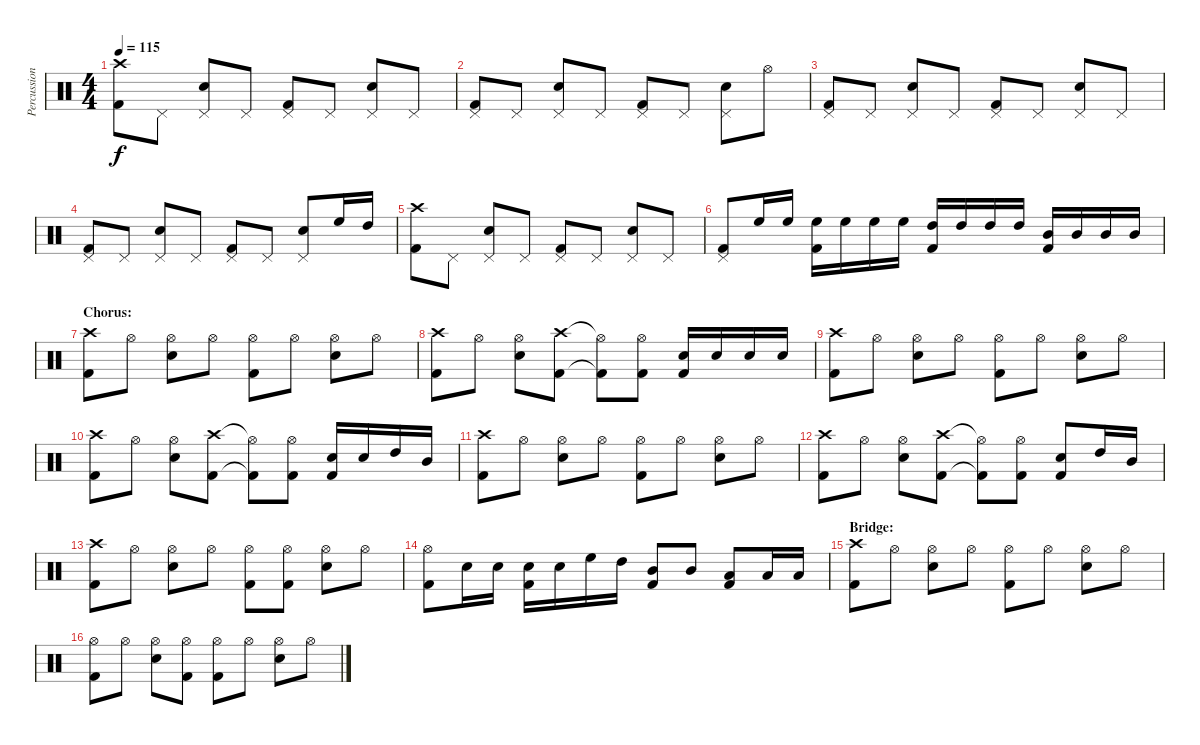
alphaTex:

\track ("Percussion" "Percussion") {instrument percussion}
\staff {score}
\articulation defaults
\ts (4 4)
\tempo 115
\clef neutral
\ks c
("Crash high (hit)" "Kick (hit) 2").8{dy f} "Pedal Hi-Hat (hit)".8 ("Pedal Hi-Hat (hit)" "Snare (hit) 2").8 "Pedal Hi-Hat (hit)".8 ("Pedal Hi-Hat (hit)" "Kick (hit) 2").8 "Pedal Hi-Hat (hit)".8 ("Pedal Hi-Hat (hit)" "Snare (hit) 2").8 "Pedal Hi-Hat (hit)".8 |
("Pedal Hi-Hat (hit)" "Kick (hit) 2").8 "Pedal Hi-Hat (hit)".8 ("Pedal Hi-Hat (hit)" "Snare (hit) 2").8 "Pedal Hi-Hat (hit)".8 ("Pedal Hi-Hat (hit)" "Kick (hit) 2").8 "Pedal Hi-Hat (hit)".8 ("Pedal Hi-Hat (hit)" "Snare (hit) 2").8 "Hi-Hat (open)".8 |
("Pedal Hi-Hat (hit)" "Kick (hit) 2").8 "Pedal Hi-Hat (hit)".8 ("Pedal Hi-Hat (hit)" "Snare (hit) 2").8 "Pedal Hi-Hat (hit)".8 ("Pedal Hi-Hat (hit)" "Kick (hit) 2").8 "Pedal Hi-Hat (hit)".8 ("Pedal Hi-Hat (hit)" "Snare (hit) 2").8 "Pedal Hi-Hat (hit)".8 |
("Pedal Hi-Hat (hit)" "Kick (hit) 2").8 "Pedal Hi-Hat (hit)".8 ("Pedal Hi-Hat (hit)" "Snare (hit) 2").8 "Pedal Hi-Hat (hit)".8 ("Pedal Hi-Hat (hit)" "Kick (hit) 2").8 "Pedal Hi-Hat (hit)".8 ("Pedal Hi-Hat (hit)" "Snare (hit) 2").8 "High Floor Tom (hit)".16 "High Tom (hit)".16 |
("Crash high (hit)" "Kick (hit) 2").8 "Pedal Hi-Hat (hit)".8 ("Pedal Hi-Hat (hit)" "Snare (hit) 2").8 "Pedal Hi-Hat (hit)".8 ("Pedal Hi-Hat (hit)" "Kick (hit) 2").8 "Pedal Hi-Hat (hit)".8 ("Pedal Hi-Hat (hit)" "Snare (hit) 2").8 "Pedal Hi-Hat (hit)".8 |
("Pedal Hi-Hat (hit)" "Kick (hit) 2").8 "High Floor Tom (hit)".16 "High Floor Tom (hit)".16 ("High Floor Tom (hit)" "Kick (hit) 2").16 "High Floor Tom (hit)".16 "High Floor Tom (hit)".16 "High Floor Tom (hit)".16 ("High Tom (hit)" "Kick (hit) 2").16 "High Tom (hit)".16 "High Tom (hit)".16 "High Tom (hit)".16 ("Mid Tom (hit)" "Kick (hit) 2").16 "Mid Tom (hit)".16 "Mid Tom (hit)".16 "Mid Tom (hit)".16 |
\section ("" "Chorus:")
("Crash high (hit)" "Kick (hit) 2").8 "Hi-Hat (open)".8 ("Hi-Hat (open)" "Snare (hit) 2").8 "Hi-Hat (open)".8 ("Hi-Hat (open)" "Kick (hit) 2").8 "Hi-Hat (open)".8 ("Hi-Hat (open)" "Snare (hit) 2").8 "Hi-Hat (open)".8 |
("Crash high (hit)" "Kick (hit) 2").8 "Hi-Hat (open)".8 ("Hi-Hat (open)" "Snare (hit) 2").8 ("Crash high (hit)" "Kick (hit) 2").8 ("Hi-Hat (open)"{t} "Kick (hit) 2"{t}).8 ("Hi-Hat (open)" "Kick (hit) 2").8 ("Snare (hit) 2" "Kick (hit) 2").16 "Snare (hit) 2".16 "Snare (hit) 2".16 "Snare (hit) 2".16 |
("Crash high (hit)" "Kick (hit) 2").8 "Hi-Hat (open)".8 ("Hi-Hat (open)" "Snare (hit) 2").8 "Hi-Hat (open)".8 ("Hi-Hat (open)" "Kick (hit) 2").8 "Hi-Hat (open)".8 ("Hi-Hat (open)" "Snare (hit) 2").8 "Hi-Hat (open)".8 |
("Crash high (hit)" "Kick (hit) 2").8 "Hi-Hat (open)".8 ("Hi-Hat (open)" "Snare (hit) 2").8 ("Crash high (hit)" "Kick (hit) 2").8 ("Hi-Hat (open)"{t} "Kick (hit) 2"{t}).8 ("Hi-Hat (open)" "Kick (hit) 2").8 ("Snare (hit) 2" "Kick (hit) 2").16 "Snare (hit) 2".16 "High Tom (hit)".16 "Mid Tom (hit)".16 |
("Crash high (hit)" "Kick (hit) 2").8 "Hi-Hat (open)".8 ("Hi-Hat (open)" "Snare (hit) 2").8 "Hi-Hat (open)".8 ("Hi-Hat (open)" "Kick (hit) 2").8 "Hi-Hat (open)".8 ("Hi-Hat (open)" "Snare (hit) 2").8 "Hi-Hat (open)".8 |
("Crash high (hit)" "Kick (hit) 2").8 "Hi-Hat (open)".8 ("Hi-Hat (open)" "Snare (hit) 2").8 ("Crash high (hit)" "Kick (hit) 2").8 ("Hi-Hat (open)"{t} "Kick (hit) 2"{t}).8 ("Hi-Hat (open)" "Kick (hit) 2").8 ("Snare (hit) 2" "Kick (hit) 2").8 "High Tom (hit)".16 "Mid Tom (hit)".16 |
("Crash high (hit)" "Kick (hit) 2").8 "Hi-Hat (open)".8 ("Hi-Hat (open)" "Snare (hit) 2").8 "Hi-Hat (open)".8 ("Hi-Hat (open)" "Kick (hit) 2").8 ("Hi-Hat (open)" "Kick (hit) 2").8 ("Hi-Hat (open)" "Snare (hit) 2").8 "Hi-Hat (open)".8 |
("Hi-Hat (open)" "Kick (hit) 2").8 "Snare (hit) 2".16 "Snare (hit) 2".16 ("Snare (hit) 2" "Kick (hit) 2").16 "Snare (hit) 2".16 "High Floor Tom (hit)".16 "High Tom (hit)".16 ("Mid Tom (hit)" "Kick (hit) 2").8 "Mid Tom (hit)".8 ("Low Tom (hit)" "Kick (hit) 2").8 "Low Tom (hit)".16 "Low Tom (hit)".16 |
\section ("" "Bridge:")
("Crash high (hit)" "Kick (hit) 2").8 "Hi-Hat (open)".8 ("Hi-Hat (open)" "Snare (hit) 2").8 "Hi-Hat (open)".8 ("Hi-Hat (open)" "Kick (hit) 2").8 "Hi-Hat (open)".8 ("Hi-Hat (open)" "Snare (hit) 2").8 "Hi-Hat (open)".8 |
("Hi-Hat (open)" "Kick (hit) 2").8 "Hi-Hat (open)".8 ("Hi-Hat (open)" "Snare (hit) 2").8 ("Hi-Hat (open)" "Kick (hit) 2").8 ("Hi-Hat (open)" "Kick (hit) 2").8 "Hi-Hat (open)".8 ("Hi-Hat (open)" "Snare (hit) 2").8 "Hi-Hat (open)".8
